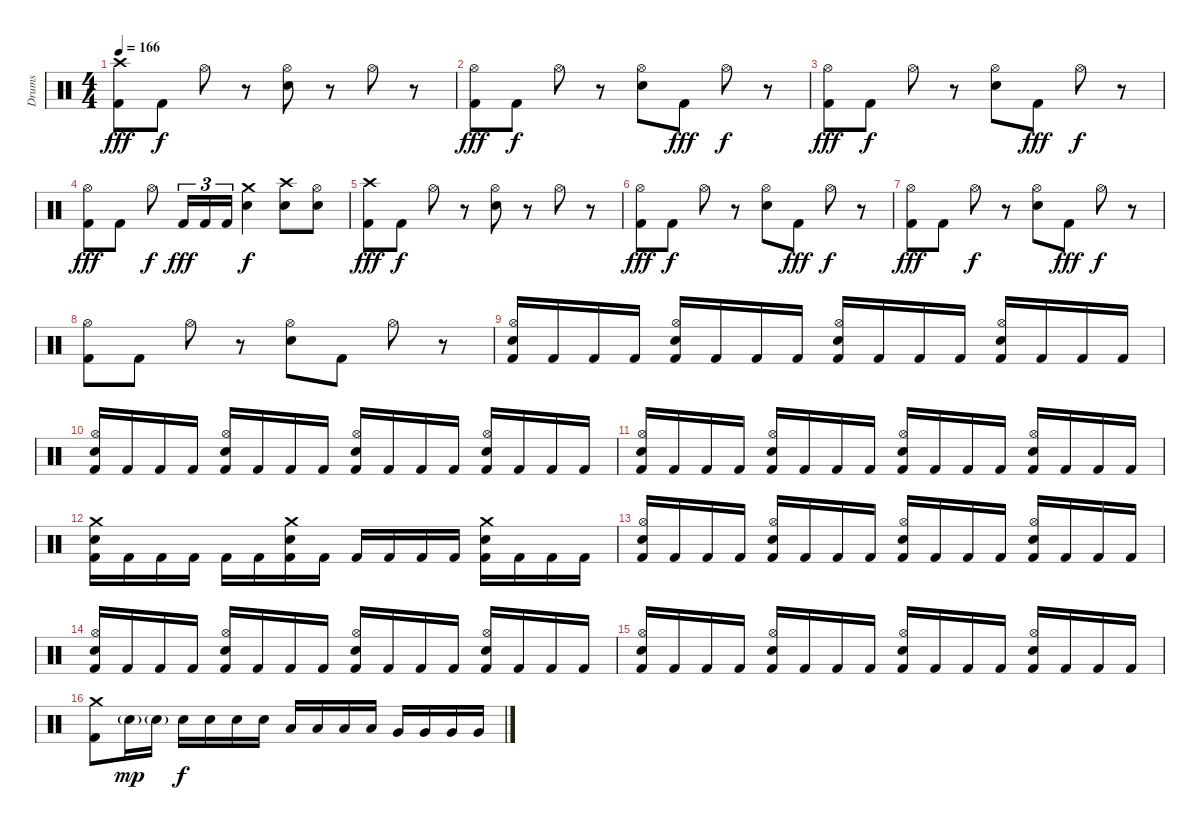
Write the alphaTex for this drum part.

\track ("Drums" "Drums") {instrument percussion}
\staff {score}
\articulation defaults
\ts (4 4)
\tempo 166
\clef neutral
\ks c
("Crash high (hit)" "Kick (hit) 2").8{dy fff} "Kick (hit) 2".8{dy f} "Hi-Hat (open)".8 r.8 ("Hi-Hat (open)" "Snare (hit) 2").8 r.8 "Hi-Hat (open)".8 r.8 |
("Hi-Hat (open)" "Kick (hit) 2").8{dy fff} "Kick (hit) 2".8{dy f} "Hi-Hat (open)".8 r.8 ("Hi-Hat (open)" "Snare (hit) 2").8 "Kick (hit) 2".8{dy fff} "Hi-Hat (open)".8{dy f} r.8 |
("Hi-Hat (open)" "Kick (hit) 2").8{dy fff} "Kick (hit) 2".8{dy f} "Hi-Hat (open)".8 r.8 ("Hi-Hat (open)" "Snare (hit) 2").8 "Kick (hit) 2".8{dy fff} "Hi-Hat (open)".8{dy f} r.8 |
("Hi-Hat (open)" "Kick (hit) 2").8{dy fff} "Kick (hit) 2".8 "Hi-Hat (open)".8{dy f} "Kick (hit) 2".16{tu (3 2) dy fff} "Kick (hit) 2".16{tu (3 2)} "Kick (hit) 2".16{tu (3 2)} ("Crash medium (hit)" "Snare (hit) 2").4{dy f} ("Crash high (hit)" "Snare (hit) 2").8 ("Hi-Hat (open)" "Snare (hit) 2").8 |
("Crash high (hit)" "Kick (hit) 2").8{dy fff} "Kick (hit) 2".8{dy f} "Hi-Hat (open)".8 r.8 ("Hi-Hat (open)" "Snare (hit) 2").8 r.8 "Hi-Hat (open)".8 r.8 |
("Hi-Hat (open)" "Kick (hit) 2").8{dy fff} "Kick (hit) 2".8{dy f} "Hi-Hat (open)".8 r.8 ("Hi-Hat (open)" "Snare (hit) 2").8 "Kick (hit) 2".8{dy fff} "Hi-Hat (open)".8{dy f} r.8 |
("Hi-Hat (open)" "Kick (hit) 2").8{dy fff} "Kick (hit) 2".8 "Hi-Hat (open)".8{dy f} r.8 ("Hi-Hat (open)" "Snare (hit) 2").8 "Kick (hit) 2".8{dy fff} "Hi-Hat (open)".8{dy f} r.8 |
("Hi-Hat (open)" "Kick (hit) 2").8 "Kick (hit) 2".8 "Hi-Hat (open)".8 r.8 ("Hi-Hat (open)" "Snare (hit) 2").8 "Kick (hit) 2".8 "Hi-Hat (open)".8 r.8 |
("Hi-Hat (open)" "Snare (hit) 2" "Kick (hit) 2").16 "Kick (hit) 2".16 "Kick (hit) 2".16 "Kick (hit) 2".16 ("Hi-Hat (open)" "Snare (hit) 2" "Kick (hit) 2").16 "Kick (hit) 2".16 "Kick (hit) 2".16 "Kick (hit) 2".16 ("Hi-Hat (open)" "Snare (hit) 2" "Kick (hit) 2").16 "Kick (hit) 2".16 "Kick (hit) 2".16 "Kick (hit) 2".16 ("Hi-Hat (open)" "Snare (hit) 2" "Kick (hit) 2").16 "Kick (hit) 2".16 "Kick (hit) 2".16 "Kick (hit) 2".16 |
("Hi-Hat (open)" "Snare (hit) 2" "Kick (hit) 2").16 "Kick (hit) 2".16 "Kick (hit) 2".16 "Kick (hit) 2".16 ("Hi-Hat (open)" "Snare (hit) 2" "Kick (hit) 2").16 "Kick (hit) 2".16 "Kick (hit) 2".16 "Kick (hit) 2".16 ("Hi-Hat (open)" "Snare (hit) 2" "Kick (hit) 2").16 "Kick (hit) 2".16 "Kick (hit) 2".16 "Kick (hit) 2".16 ("Hi-Hat (open)" "Snare (hit) 2" "Kick (hit) 2").16 "Kick (hit) 2".16 "Kick (hit) 2".16 "Kick (hit) 2".16 |
("Hi-Hat (open)" "Snare (hit) 2" "Kick (hit) 2").16 "Kick (hit) 2".16 "Kick (hit) 2".16 "Kick (hit) 2".16 ("Hi-Hat (open)" "Snare (hit) 2" "Kick (hit) 2").16 "Kick (hit) 2".16 "Kick (hit) 2".16 "Kick (hit) 2".16 ("Hi-Hat (open)" "Snare (hit) 2" "Kick (hit) 2").16 "Kick (hit) 2".16 "Kick (hit) 2".16 "Kick (hit) 2".16 ("Hi-Hat (open)" "Snare (hit) 2" "Kick (hit) 2").16 "Kick (hit) 2".16 "Kick (hit) 2".16 "Kick (hit) 2".16 |
("Crash medium (hit)" "Snare (hit) 2" "Kick (hit) 2").16 "Kick (hit) 2".16 "Kick (hit) 2".16 "Kick (hit) 2".16 "Kick (hit) 2".16 "Kick (hit) 2".16 ("Crash medium (hit)" "Snare (hit) 2" "Kick (hit) 2").16 "Kick (hit) 2".16 "Kick (hit) 2".16 "Kick (hit) 2".16 "Kick (hit) 2".16 "Kick (hit) 2".16 ("Crash medium (hit)" "Snare (hit) 2" "Kick (hit) 2").16 "Kick (hit) 2".16 "Kick (hit) 2".16 "Kick (hit) 2".16 |
("Hi-Hat (open)" "Snare (hit) 2" "Kick (hit) 2").16 "Kick (hit) 2".16 "Kick (hit) 2".16 "Kick (hit) 2".16 ("Hi-Hat (open)" "Snare (hit) 2" "Kick (hit) 2").16 "Kick (hit) 2".16 "Kick (hit) 2".16 "Kick (hit) 2".16 ("Hi-Hat (open)" "Snare (hit) 2" "Kick (hit) 2").16 "Kick (hit) 2".16 "Kick (hit) 2".16 "Kick (hit) 2".16 ("Hi-Hat (open)" "Snare (hit) 2" "Kick (hit) 2").16 "Kick (hit) 2".16 "Kick (hit) 2".16 "Kick (hit) 2".16 |
("Hi-Hat (open)" "Snare (hit) 2" "Kick (hit) 2").16 "Kick (hit) 2".16 "Kick (hit) 2".16 "Kick (hit) 2".16 ("Hi-Hat (open)" "Snare (hit) 2" "Kick (hit) 2").16 "Kick (hit) 2".16 "Kick (hit) 2".16 "Kick (hit) 2".16 ("Hi-Hat (open)" "Snare (hit) 2" "Kick (hit) 2").16 "Kick (hit) 2".16 "Kick (hit) 2".16 "Kick (hit) 2".16 ("Hi-Hat (open)" "Snare (hit) 2" "Kick (hit) 2").16 "Kick (hit) 2".16 "Kick (hit) 2".16 "Kick (hit) 2".16 |
("Hi-Hat (open)" "Snare (hit) 2" "Kick (hit) 2").16 "Kick (hit) 2".16 "Kick (hit) 2".16 "Kick (hit) 2".16 ("Hi-Hat (open)" "Snare (hit) 2" "Kick (hit) 2").16 "Kick (hit) 2".16 "Kick (hit) 2".16 "Kick (hit) 2".16 ("Hi-Hat (open)" "Snare (hit) 2" "Kick (hit) 2").16 "Kick (hit) 2".16 "Kick (hit) 2".16 "Kick (hit) 2".16 ("Hi-Hat (open)" "Snare (hit) 2" "Kick (hit) 2").16 "Kick (hit) 2".16 "Kick (hit) 2".16 "Kick (hit) 2".16 |
("Crash medium (hit)" "Kick (hit) 2").8 "Snare (hit) 2"{g}.16{dy mp} "Snare (hit) 2"{g}.16 "Snare (hit) 2".16{dy f} "Snare (hit) 2".16 "Snare (hit) 2".16 "Snare (hit) 2".16 "Low Tom (hit)".16 "Low Tom (hit)".16 "Low Tom (hit)".16 "Low Tom (hit)".16 "Very Low Tom (hit)".16 "Very Low Tom (hit)".16 "Very Low Tom (hit)".16 "Very Low Tom (hit)".16
